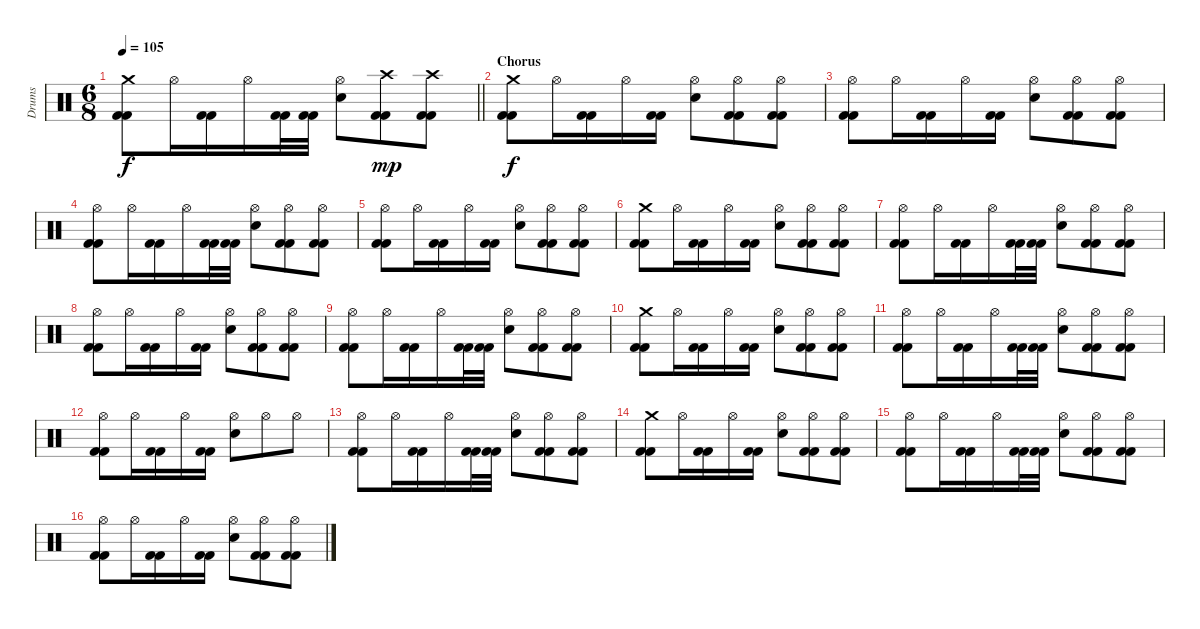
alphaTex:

\track ("Drums" "Drums") {instrument percussion}
\staff {score}
\articulation defaults
\ts (6 8)
\tempo 105
\clef neutral
\barLineRight lightlight
\ks c
("Crash medium (hit)" "Kick (hit) 2" "Kick (hit) 2").8{dy f} "Hi-Hat (open)".16 ("Kick (hit) 2" "Kick (hit) 2").16 "Hi-Hat (open)".16 ("Kick (hit) 2" "Kick (hit) 2").32 ("Kick (hit) 2" "Kick (hit) 2").32 ("Hi-Hat (open)" "Electric Snare (hit)").8 ("Crash high (hit)" "Kick (hit) 2" "Kick (hit) 2").8{dy mp} ("Crash high (hit)" "Kick (hit) 2" "Kick (hit) 2").8 |
\section ("" "Chorus")
("Crash medium (hit)" "Kick (hit) 2" "Kick (hit) 2").8{dy f} "Hi-Hat (open)".16 ("Kick (hit) 2" "Kick (hit) 2").16 "Hi-Hat (open)".16 ("Kick (hit) 2" "Kick (hit) 2").16 ("Hi-Hat (open)" "Electric Snare (hit)").8 ("Hi-Hat (open)" "Kick (hit) 2" "Kick (hit) 2").8 ("Hi-Hat (open)" "Kick (hit) 2" "Kick (hit) 2").8 |
("Hi-Hat (open)" "Kick (hit) 2" "Kick (hit) 2").8 "Hi-Hat (open)".16 ("Kick (hit) 2" "Kick (hit) 2").16 "Hi-Hat (open)".16 ("Kick (hit) 2" "Kick (hit) 2").16 ("Hi-Hat (open)" "Electric Snare (hit)").8 ("Hi-Hat (open)" "Kick (hit) 2" "Kick (hit) 2").8 ("Hi-Hat (open)" "Kick (hit) 2" "Kick (hit) 2").8 |
("Hi-Hat (open)" "Kick (hit) 2" "Kick (hit) 2").8 "Hi-Hat (open)".16 ("Kick (hit) 2" "Kick (hit) 2").16 "Hi-Hat (open)".16 ("Kick (hit) 2" "Kick (hit) 2").32 ("Kick (hit) 2" "Kick (hit) 2").32 ("Hi-Hat (open)" "Electric Snare (hit)").8 ("Hi-Hat (open)" "Kick (hit) 2" "Kick (hit) 2").8 ("Hi-Hat (open)" "Kick (hit) 2" "Kick (hit) 2").8 |
("Hi-Hat (open)" "Kick (hit) 2" "Kick (hit) 2").8 "Hi-Hat (open)".16 ("Kick (hit) 2" "Kick (hit) 2").16 "Hi-Hat (open)".16 ("Kick (hit) 2" "Kick (hit) 2").16 ("Hi-Hat (open)" "Electric Snare (hit)").8 ("Hi-Hat (open)" "Kick (hit) 2" "Kick (hit) 2").8 ("Hi-Hat (open)" "Kick (hit) 2" "Kick (hit) 2").8 |
("Crash medium (hit)" "Kick (hit) 2" "Kick (hit) 2").8 "Hi-Hat (open)".16 ("Kick (hit) 2" "Kick (hit) 2").16 "Hi-Hat (open)".16 ("Kick (hit) 2" "Kick (hit) 2").16 ("Hi-Hat (open)" "Electric Snare (hit)").8 ("Hi-Hat (open)" "Kick (hit) 2" "Kick (hit) 2").8 ("Hi-Hat (open)" "Kick (hit) 2" "Kick (hit) 2").8 |
("Hi-Hat (open)" "Kick (hit) 2" "Kick (hit) 2").8 "Hi-Hat (open)".16 ("Kick (hit) 2" "Kick (hit) 2").16 "Hi-Hat (open)".16 ("Kick (hit) 2" "Kick (hit) 2").32 ("Kick (hit) 2" "Kick (hit) 2").32 ("Hi-Hat (open)" "Electric Snare (hit)").8 ("Hi-Hat (open)" "Kick (hit) 2" "Kick (hit) 2").8 ("Hi-Hat (open)" "Kick (hit) 2" "Kick (hit) 2").8 |
("Hi-Hat (open)" "Kick (hit) 2" "Kick (hit) 2").8 "Hi-Hat (open)".16 ("Kick (hit) 2" "Kick (hit) 2").16 "Hi-Hat (open)".16 ("Kick (hit) 2" "Kick (hit) 2").16 ("Hi-Hat (open)" "Electric Snare (hit)").8 ("Hi-Hat (open)" "Kick (hit) 2" "Kick (hit) 2").8 ("Hi-Hat (open)" "Kick (hit) 2" "Kick (hit) 2").8 |
("Hi-Hat (open)" "Kick (hit) 2" "Kick (hit) 2").8 "Hi-Hat (open)".16 ("Kick (hit) 2" "Kick (hit) 2").16 "Hi-Hat (open)".16 ("Kick (hit) 2" "Kick (hit) 2").32 ("Kick (hit) 2" "Kick (hit) 2").32 ("Hi-Hat (open)" "Electric Snare (hit)").8 ("Hi-Hat (open)" "Kick (hit) 2" "Kick (hit) 2").8 ("Hi-Hat (open)" "Kick (hit) 2" "Kick (hit) 2").8 |
("Crash medium (hit)" "Kick (hit) 2" "Kick (hit) 2").8 "Hi-Hat (open)".16 ("Kick (hit) 2" "Kick (hit) 2").16 "Hi-Hat (open)".16 ("Kick (hit) 2" "Kick (hit) 2").16 ("Hi-Hat (open)" "Electric Snare (hit)").8 ("Hi-Hat (open)" "Kick (hit) 2" "Kick (hit) 2").8 ("Hi-Hat (open)" "Kick (hit) 2" "Kick (hit) 2").8 |
("Hi-Hat (open)" "Kick (hit) 2" "Kick (hit) 2").8 "Hi-Hat (open)".16 ("Kick (hit) 2" "Kick (hit) 2").16 "Hi-Hat (open)".16 ("Kick (hit) 2" "Kick (hit) 2").32 ("Kick (hit) 2" "Kick (hit) 2").32 ("Hi-Hat (open)" "Electric Snare (hit)").8 ("Hi-Hat (open)" "Kick (hit) 2" "Kick (hit) 2").8 ("Hi-Hat (open)" "Kick (hit) 2" "Kick (hit) 2").8 |
("Hi-Hat (open)" "Kick (hit) 2" "Kick (hit) 2").8 "Hi-Hat (open)".16 ("Kick (hit) 2" "Kick (hit) 2").16 "Hi-Hat (open)".16 ("Kick (hit) 2" "Kick (hit) 2").16 ("Hi-Hat (open)" "Electric Snare (hit)").8 "Hi-Hat (open)".8 "Hi-Hat (open)".8 |
("Hi-Hat (open)" "Kick (hit) 2" "Kick (hit) 2").8 "Hi-Hat (open)".16 ("Kick (hit) 2" "Kick (hit) 2").16 "Hi-Hat (open)".16 ("Kick (hit) 2" "Kick (hit) 2").32 ("Kick (hit) 2" "Kick (hit) 2").32 ("Hi-Hat (open)" "Electric Snare (hit)").8 ("Hi-Hat (open)" "Kick (hit) 2" "Kick (hit) 2").8 ("Hi-Hat (open)" "Kick (hit) 2" "Kick (hit) 2").8 |
("Crash medium (hit)" "Kick (hit) 2" "Kick (hit) 2").8 "Hi-Hat (open)".16 ("Kick (hit) 2" "Kick (hit) 2").16 "Hi-Hat (open)".16 ("Kick (hit) 2" "Kick (hit) 2").16 ("Hi-Hat (open)" "Electric Snare (hit)").8 ("Hi-Hat (open)" "Kick (hit) 2" "Kick (hit) 2").8 ("Hi-Hat (open)" "Kick (hit) 2" "Kick (hit) 2").8 |
("Hi-Hat (open)" "Kick (hit) 2" "Kick (hit) 2").8 "Hi-Hat (open)".16 ("Kick (hit) 2" "Kick (hit) 2").16 "Hi-Hat (open)".16 ("Kick (hit) 2" "Kick (hit) 2").32 ("Kick (hit) 2" "Kick (hit) 2").32 ("Hi-Hat (open)" "Electric Snare (hit)").8 ("Hi-Hat (open)" "Kick (hit) 2" "Kick (hit) 2").8 ("Hi-Hat (open)" "Kick (hit) 2" "Kick (hit) 2").8 |
("Hi-Hat (open)" "Kick (hit) 2" "Kick (hit) 2").8 "Hi-Hat (open)".16 ("Kick (hit) 2" "Kick (hit) 2").16 "Hi-Hat (open)".16 ("Kick (hit) 2" "Kick (hit) 2").16 ("Hi-Hat (open)" "Electric Snare (hit)").8 ("Hi-Hat (open)" "Kick (hit) 2" "Kick (hit) 2").8 ("Hi-Hat (open)" "Kick (hit) 2" "Kick (hit) 2").8
